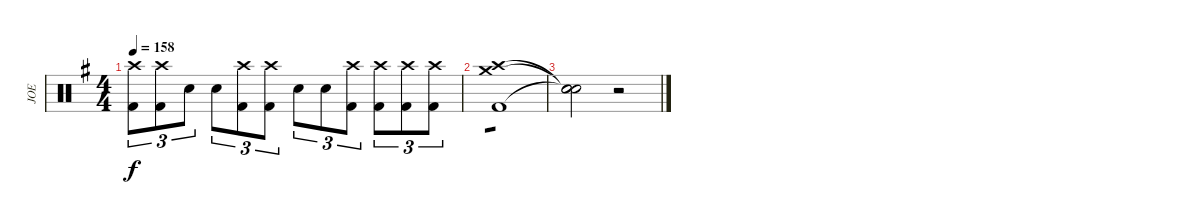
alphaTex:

\track ("JOE" "JOE") {instrument percussion}
\staff {score}
\articulation defaults
\ts (4 4)
\tempo 158
\clef neutral
\ks g
("Crash high (hit)" "Kick (hit) 2").8{tu (3 2) dy f} ("Crash high (hit)" "Kick (hit) 2").8{tu (3 2)} "Snare (hit) 2".8{tu (3 2)} "Snare (hit) 2".8{tu (3 2)} ("Crash high (hit)" "Kick (hit) 2").8{tu (3 2)} ("Crash high (hit)" "Kick (hit) 2").8{tu (3 2)} "Snare (hit) 2".8{tu (3 2)} "Snare (hit) 2".8{tu (3 2)} ("Crash high (hit)" "Kick (hit) 2").8{tu (3 2)} ("Crash high (hit)" "Kick (hit) 2").8{tu (3 2)} ("Crash high (hit)" "Kick (hit) 2").8{tu (3 2)} ("Crash high (hit)" "Kick (hit) 2").8{tu (3 2)} |
("Crash high (hit)" "Crash medium (hit)" "Kick (hit) 2").1{tp 1} |
("Snare (hit)"{t} "Snare (hit)"{t} "Snare (hit)"{t}).2 r.2
